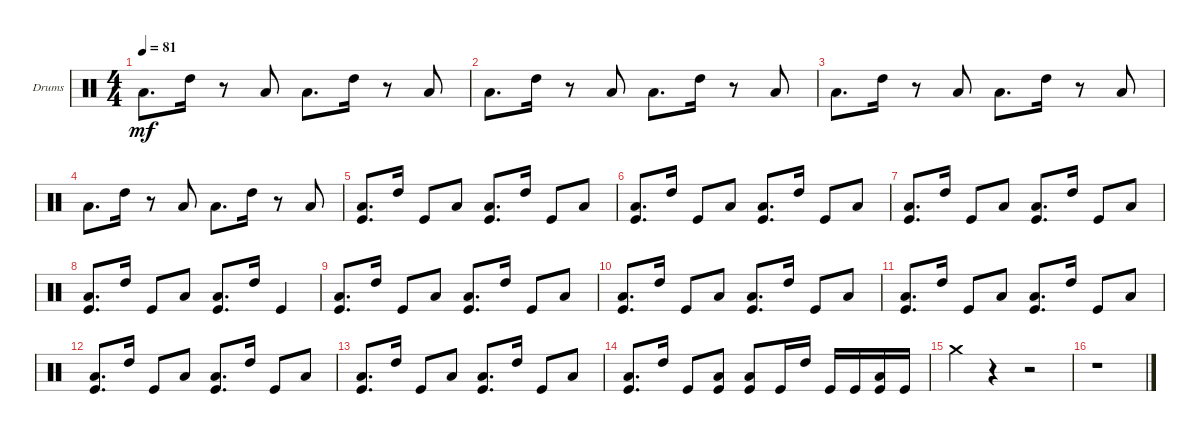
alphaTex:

\bracketExtendMode groupsimilarinstruments
\firstSystemTrackNameOrientation horizontal
\otherSystemsTrackNameOrientation horizontal
\track ("Drumkit" "Drums") {instrument percussion}
\staff {score}
\articulation defaults
\ts (4 4)
\tempo 81
\clef neutral
\ks c "Low Tom (hit)".8{d dy mf} "High Tom (hit)".16
r.8 "Low Tom (hit)".8 "Low Tom (hit)".8{d} "High Tom (hit)".16 r.8 "Low Tom (hit)".8 |
"Low Tom (hit)".8{d} "High Tom (hit)".16 r.8 "Low Tom (hit)".8 "Low Tom (hit)".8{d} "High Tom (hit)".16 r.8 "Low Tom (hit)".8 |
"Low Tom (hit)".8{d} "High Tom (hit)".16 r.8 "Low Tom (hit)".8 "Low Tom (hit)".8{d} "High Tom (hit)".16 r.8 "Low Tom (hit)".8 |
"Low Tom (hit)".8{d} "High Tom (hit)".16 r.8 "Low Tom (hit)".8 "Low Tom (hit)".8{d} "High Tom (hit)".16 r.8 "Low Tom (hit)".8 |
("Kick (hit)" "Low Tom (hit)").8{d} "High Tom (hit)".16 "Kick (hit)".8 "Low Tom (hit)".8 ("Kick (hit)" "Low Tom (hit)").8{d} "High Tom (hit)".16 "Kick (hit)".8 "Low Tom (hit)".8 |
("Kick (hit)" "Low Tom (hit)").8{d} "High Tom (hit)".16 "Kick (hit)".8 "Low Tom (hit)".8 ("Kick (hit)" "Low Tom (hit)").8{d} "High Tom (hit)".16 "Kick (hit)".8 "Low Tom (hit)".8 |
("Kick (hit)" "Low Tom (hit)").8{d} "High Tom (hit)".16 "Kick (hit)".8 "Low Tom (hit)".8 ("Kick (hit)" "Low Tom (hit)").8{d} "High Tom (hit)".16 "Kick (hit)".8 "Low Tom (hit)".8 |
("Kick (hit)" "Low Tom (hit)").8{d} "High Tom (hit)".16 "Kick (hit)".8 "Low Tom (hit)".8 ("Kick (hit)" "Low Tom (hit)").8{d} "High Tom (hit)".16 "Kick (hit)".4 |
("Kick (hit)" "Low Tom (hit)").8{d} "High Tom (hit)".16 "Kick (hit)".8 "Low Tom (hit)".8 ("Kick (hit)" "Low Tom (hit)").8{d} "High Tom (hit)".16 "Kick (hit)".8 "Low Tom (hit)".8 |
("Kick (hit)" "Low Tom (hit)").8{d} "High Tom (hit)".16 "Kick (hit)".8 "Low Tom (hit)".8 ("Kick (hit)" "Low Tom (hit)").8{d} "High Tom (hit)".16 "Kick (hit)".8 "Low Tom (hit)".8 |
("Kick (hit)" "Low Tom (hit)").8{d} "High Tom (hit)".16 "Kick (hit)".8 "Low Tom (hit)".8 ("Kick (hit)" "Low Tom (hit)").8{d} "High Tom (hit)".16 "Kick (hit)".8 "Low Tom (hit)".8 |
("Kick (hit)" "Low Tom (hit)").8{d} "High Tom (hit)".16 "Kick (hit)".8 "Low Tom (hit)".8 ("Kick (hit)" "Low Tom (hit)").8{d} "High Tom (hit)".16 "Kick (hit)".8 "Low Tom (hit)".8 |
("Kick (hit)" "Low Tom (hit)").8{d} "High Tom (hit)".16 "Kick (hit)".8 "Low Tom (hit)".8 ("Kick (hit)" "Low Tom (hit)").8{d} "High Tom (hit)".16 "Kick (hit)".8 "Low Tom (hit)".8 |
("Kick (hit)" "Low Tom (hit)").8{d} "High Tom (hit)".16 "Kick (hit)".8 ("Kick (hit)" "Low Tom (hit)").8 ("Kick (hit)" "Low Tom (hit)").8 "Kick (hit)".16 "High Tom (hit)".16 "Kick (hit)".16 "Kick (hit)".16 ("Kick (hit)" "Low Tom (hit)").16 "Kick (hit)".16 |
"Crash medium (hit)".4 r.4 r.2 |
r.1
